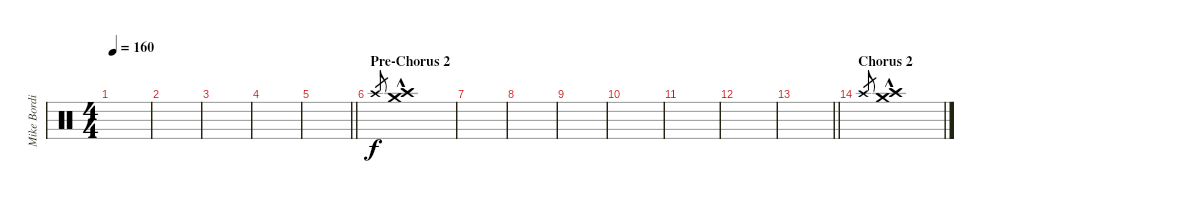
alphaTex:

\track ("Mike Bordin - Percussion Crash" "Mike Bordi") {instrument percussion}
\staff {score}
\articulation defaults
\ts (4 4)
\tempo 160
\clef neutral
\ks c
|
|
|
|
\barLineRight lightlight
|
\section ("" "Pre-Chorus 2 ")
"Crash high (hit)".8{gr} ("Crash high (hit)"{hac} "Crash medium (hit)").1{volume 16} |
|
|
|
|
|
|
\barLineRight lightlight
|
\section ("" "Chorus 2")
"Crash high (hit)".8{gr} ("Crash high (hit)"{hac} "Crash medium (hit)").1{volume 16}
